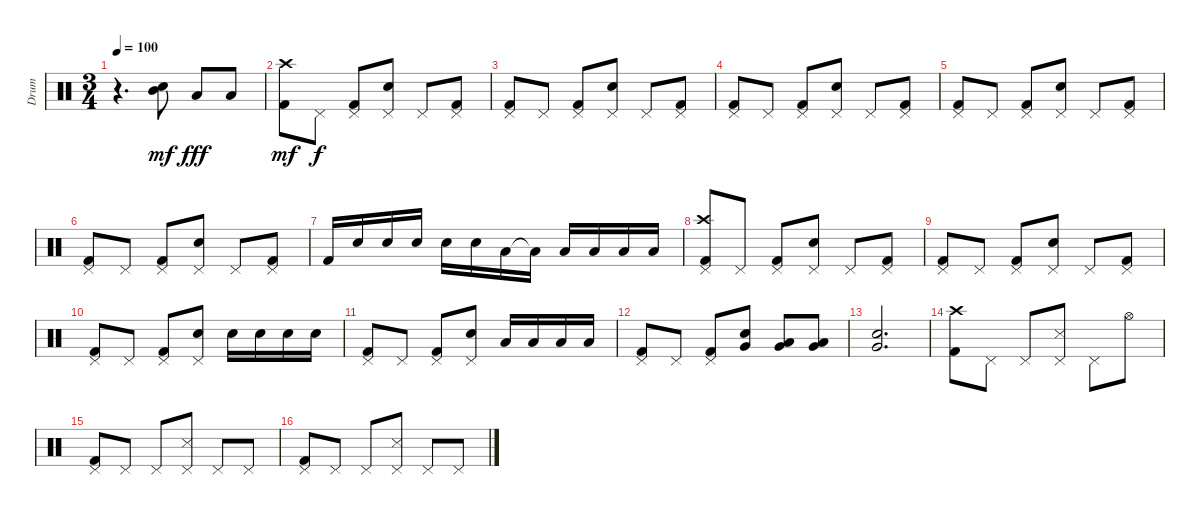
\track ("Drum" "Drum") {instrument percussion}
\staff {score}
\articulation defaults
\ts (3 4)
\tempo 100
\clef neutral
\ks c
r.4{d dy mf} ("Snare (hit) 2" "Mid Tom (hit)").8{bd 240} "Low Tom (hit)".8{dy fff} "Low Tom (hit)".8 |
("Kick (hit) 2" "Crash high (hit)").8{dy mf} "Pedal Hi-Hat (hit)".8{dy f} ("Kick (hit) 2" "Pedal Hi-Hat (hit)").8 ("Snare (hit) 2" "Pedal Hi-Hat (hit)").8 "Pedal Hi-Hat (hit)".8 ("Kick (hit) 2" "Pedal Hi-Hat (hit)").8 |
("Kick (hit) 2" "Pedal Hi-Hat (hit)").8 "Pedal Hi-Hat (hit)".8 ("Kick (hit) 2" "Pedal Hi-Hat (hit)").8 ("Snare (hit) 2" "Pedal Hi-Hat (hit)").8 "Pedal Hi-Hat (hit)".8 ("Kick (hit) 2" "Pedal Hi-Hat (hit)").8 |
("Kick (hit) 2" "Pedal Hi-Hat (hit)").8 "Pedal Hi-Hat (hit)".8 ("Kick (hit) 2" "Pedal Hi-Hat (hit)").8 ("Snare (hit) 2" "Pedal Hi-Hat (hit)").8 "Pedal Hi-Hat (hit)".8 ("Kick (hit) 2" "Pedal Hi-Hat (hit)").8 |
("Kick (hit) 2" "Pedal Hi-Hat (hit)").8 "Pedal Hi-Hat (hit)".8 ("Kick (hit) 2" "Pedal Hi-Hat (hit)").8 ("Snare (hit) 2" "Pedal Hi-Hat (hit)").8 "Pedal Hi-Hat (hit)".8 ("Kick (hit) 2" "Pedal Hi-Hat (hit)").8 |
("Kick (hit) 2" "Pedal Hi-Hat (hit)").8 "Pedal Hi-Hat (hit)".8 ("Kick (hit) 2" "Pedal Hi-Hat (hit)").8 ("Snare (hit) 2" "Pedal Hi-Hat (hit)").8 "Pedal Hi-Hat (hit)".8 ("Kick (hit) 2" "Pedal Hi-Hat (hit)").8 |
"Kick (hit) 2".16 "Snare (hit) 2".16 "Snare (hit) 2".16 "Snare (hit) 2".16 "Snare (hit) 2".16 "Snare (hit) 2".16 "Low Tom (hit)".16 "Low Tom (hit)"{t}.16 "Low Tom (hit)".16 "Low Tom (hit)".16 "Low Tom (hit)".16 "Low Tom (hit)".16 |
("Kick (hit) 2" "Pedal Hi-Hat (hit)" "Crash high (hit)").8 "Pedal Hi-Hat (hit)".8 ("Kick (hit) 2" "Pedal Hi-Hat (hit)").8 ("Snare (hit) 2" "Pedal Hi-Hat (hit)").8 "Pedal Hi-Hat (hit)".8 ("Kick (hit) 2" "Pedal Hi-Hat (hit)").8 |
("Kick (hit) 2" "Pedal Hi-Hat (hit)").8 "Pedal Hi-Hat (hit)".8 ("Kick (hit) 2" "Pedal Hi-Hat (hit)").8 ("Snare (hit) 2" "Pedal Hi-Hat (hit)").8 "Pedal Hi-Hat (hit)".8 ("Kick (hit) 2" "Pedal Hi-Hat (hit)").8 |
("Kick (hit) 2" "Pedal Hi-Hat (hit)").8 "Pedal Hi-Hat (hit)".8 ("Kick (hit) 2" "Pedal Hi-Hat (hit)").8 ("Snare (hit) 2" "Pedal Hi-Hat (hit)").8 "Snare (hit) 2".16 "Snare (hit) 2".16 "Snare (hit) 2".16 "Snare (hit) 2".16 |
("Kick (hit) 2" "Pedal Hi-Hat (hit)").8 "Pedal Hi-Hat (hit)".8 ("Kick (hit) 2" "Pedal Hi-Hat (hit)").8 ("Snare (hit) 2" "Pedal Hi-Hat (hit)").8 "Low Tom (hit)".16 "Low Tom (hit)".16 "Low Tom (hit)".16 "Low Tom (hit)".16 |
("Kick (hit) 2" "Pedal Hi-Hat (hit)").8 "Pedal Hi-Hat (hit)".8 ("Kick (hit) 2" "Pedal Hi-Hat (hit)").8 ("Snare (hit) 2" "Very Low Tom (hit)").8{bd 30} ("Low Tom (hit)" "Very Low Tom (hit)").8{bd 30} ("Low Tom (hit)" "Very Low Tom (hit)").8{bd 30} |
("Snare (hit) 2" "Very Low Tom (hit)").2{d bd 30} |
("Kick (hit) 2" "Crash high (hit)").8 "Pedal Hi-Hat (hit)".8 "Pedal Hi-Hat (hit)".8 ("Snare (side stick) 3" "Pedal Hi-Hat (hit)").8 "Pedal Hi-Hat (hit)".8 "Hi-Hat (open)".8 |
("Kick (hit) 2" "Pedal Hi-Hat (hit)").8 "Pedal Hi-Hat (hit)".8 "Pedal Hi-Hat (hit)".8 ("Snare (side stick) 3" "Pedal Hi-Hat (hit)").8 "Pedal Hi-Hat (hit)".8 "Pedal Hi-Hat (hit)".8 |
("Kick (hit) 2" "Pedal Hi-Hat (hit)").8 "Pedal Hi-Hat (hit)".8 "Pedal Hi-Hat (hit)".8 ("Snare (side stick) 3" "Pedal Hi-Hat (hit)").8 "Pedal Hi-Hat (hit)".8 "Pedal Hi-Hat (hit)".8
